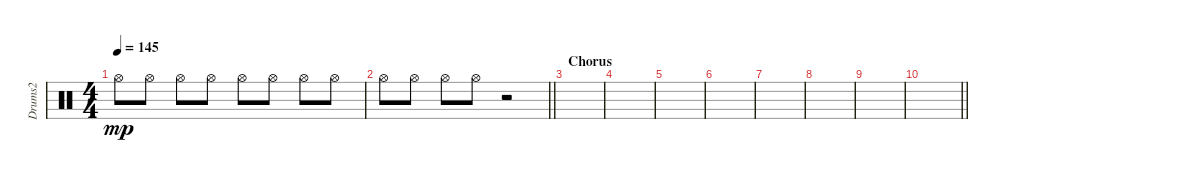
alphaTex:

\track ("Drums2" "Drums2") {instrument percussion}
\staff {score}
\articulation defaults
\ts (4 4)
\tempo 145
\clef neutral
\ks c "Hi-Hat (open)".8{dy mp} "Hi-Hat (open)".8 "Hi-Hat (open)".8 "Hi-Hat (open)".8 "Hi-Hat (open)".8 "Hi-Hat (open)".8 "Hi-Hat (open)".8 "Hi-Hat (open)".8
|
\barLineRight lightlight "Hi-Hat (open)".8 "Hi-Hat (open)".8 "Hi-Hat (open)".8 "Hi-Hat (open)".8
r.2 |
\section ("" "Chorus")
|
|
|
|
|
|
|
\barLineRight lightlight
